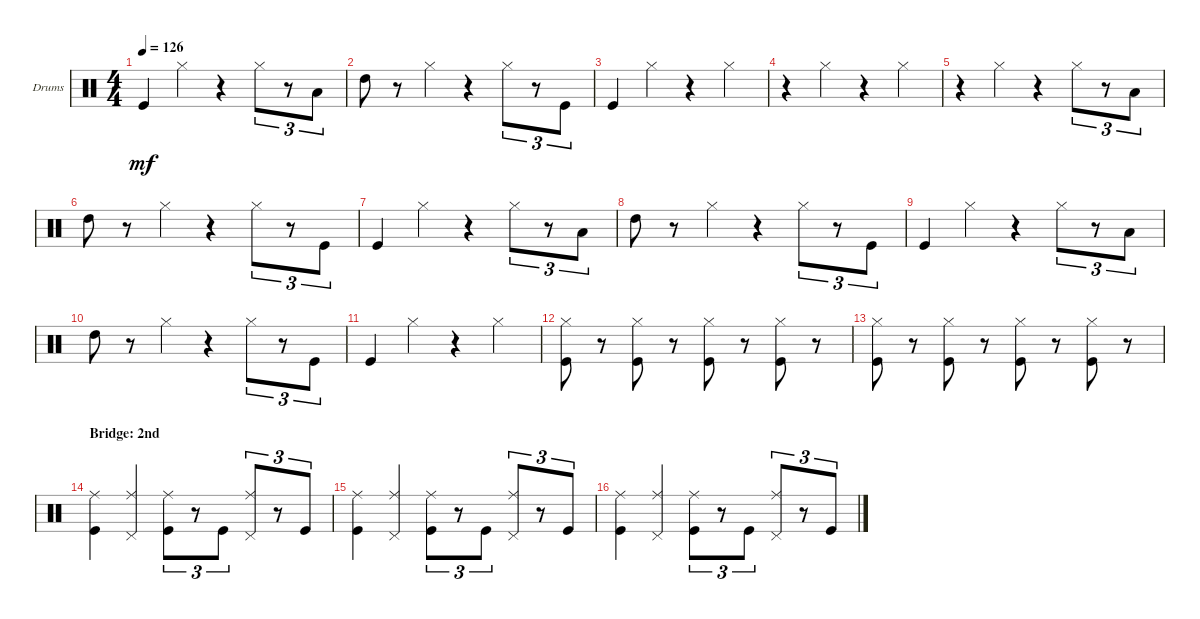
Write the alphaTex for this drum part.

\defaultSystemsLayout 4
\bracketExtendMode groupsimilarinstruments
\firstSystemTrackNameOrientation horizontal
\otherSystemsTrackNameOrientation horizontal
\track ("Drumkit" "Drums") {instrument percussion}
\staff {score}
\articulation defaults
\ts (4 4)
\tempo 126
\clef neutral
\ks c "Kick (hit)".4{dy mf} "Hi-Hat (closed)".4
r.4 "Hi-Hat (closed)".8{tu (3 2)} r.8{tu (3 2)} "Low Tom (hit)".8{tu (3 2)} |
"High Tom (hit)".8 r.8 "Hi-Hat (closed)".4 r.4 "Hi-Hat (closed)".8{tu (3 2)} r.8{tu (3 2)} "Kick (hit)".8{tu (3 2)} |
"Kick (hit)".4 "Hi-Hat (closed)".4 r.4 "Hi-Hat (closed)".4 |
r.4 "Hi-Hat (closed)".4 r.4 "Hi-Hat (closed)".4 |
r.4 "Hi-Hat (closed)".4 r.4 "Hi-Hat (closed)".8{tu (3 2)} r.8{tu (3 2)} "Low Tom (hit)".8{tu (3 2)} |
"High Tom (hit)".8 r.8 "Hi-Hat (closed)".4 r.4 "Hi-Hat (closed)".8{tu (3 2)} r.8{tu (3 2)} "Kick (hit)".8{tu (3 2)} |
"Kick (hit)".4 "Hi-Hat (closed)".4 r.4 "Hi-Hat (closed)".8{tu (3 2)} r.8{tu (3 2)} "Low Tom (hit)".8{tu (3 2)} |
"High Tom (hit)".8 r.8 "Hi-Hat (closed)".4 r.4 "Hi-Hat (closed)".8{tu (3 2)} r.8{tu (3 2)} "Kick (hit)".8{tu (3 2)} |
"Kick (hit)".4 "Hi-Hat (closed)".4 r.4 "Hi-Hat (closed)".8{tu (3 2)} r.8{tu (3 2)} "Low Tom (hit)".8{tu (3 2)} |
"High Tom (hit)".8 r.8 "Hi-Hat (closed)".4 r.4 "Hi-Hat (closed)".8{tu (3 2)} r.8{tu (3 2)} "Kick (hit)".8{tu (3 2)} |
"Kick (hit)".4 "Hi-Hat (closed)".4 r.4 "Hi-Hat (closed)".4 |
("Hi-Hat (closed)" "Kick (hit)").8 r.8 ("Hi-Hat (closed)" "Kick (hit)").8 r.8 ("Hi-Hat (closed)" "Kick (hit)").8 r.8 ("Hi-Hat (closed)" "Kick (hit)").8 r.8 |
("Hi-Hat (closed)" "Kick (hit)").8 r.8 ("Hi-Hat (closed)" "Kick (hit)").8 r.8 ("Hi-Hat (closed)" "Kick (hit)").8 r.8 ("Hi-Hat (closed)" "Kick (hit)").8 r.8 |
\section ("" "Bridge: 2nd")
("Ride (middle)" "Kick (hit)").4 ("Ride (middle)" "Pedal Hi-Hat (hit)").4 ("Ride (middle)" "Kick (hit)").8{tu (3 2)} r.8{tu (3 2)} "Kick (hit)".8{tu (3 2)} ("Ride (middle)" "Pedal Hi-Hat (hit)").8{tu (3 2)} r.8{tu (3 2)} "Kick (hit)".8{tu (3 2)} |
("Ride (middle)" "Kick (hit)").4 ("Ride (middle)" "Pedal Hi-Hat (hit)").4 ("Ride (middle)" "Kick (hit)").8{tu (3 2)} r.8{tu (3 2)} "Kick (hit)".8{tu (3 2)} ("Ride (middle)" "Pedal Hi-Hat (hit)").8{tu (3 2)} r.8{tu (3 2)} "Kick (hit)".8{tu (3 2)} |
("Ride (middle)" "Kick (hit)").4 ("Ride (middle)" "Pedal Hi-Hat (hit)").4 ("Ride (middle)" "Kick (hit)").8{tu (3 2)} r.8{tu (3 2)} "Kick (hit)".8{tu (3 2)} ("Ride (middle)" "Pedal Hi-Hat (hit)").8{tu (3 2)} r.8{tu (3 2)} "Kick (hit)".8{tu (3 2)}
